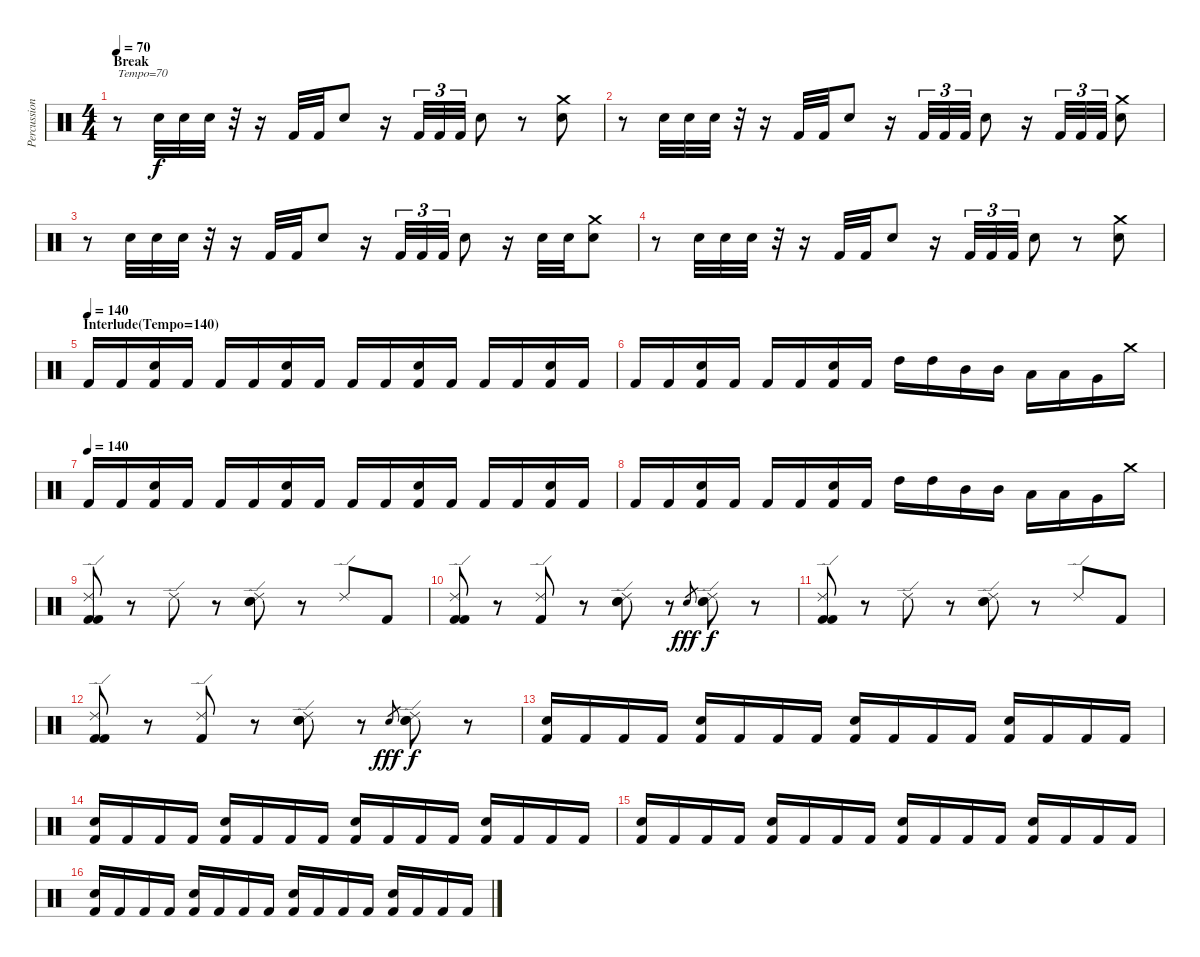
\track ("Percussion" "Percussion") {instrument percussion}
\staff {score}
\articulation defaults
\ts (4 4)
\section ("" "Break")
\tempo 70
\clef neutral
\ks c
r.8{txt "Tempo=70" dy f} "Snare (hit) 2".32 "Snare (hit) 2".32 "Snare (hit) 2".32 r.32 r.16 "Kick (hit) 2".32 "Kick (hit) 2".32 "Snare (hit) 2".8 r.16 "Kick (hit) 2".32{tu (3 2)} "Kick (hit) 2".32{tu (3 2)} "Kick (hit) 2".32{tu (3 2)} "Snare (hit) 2".8 r.8 ("Crash medium (hit)" "Snare (hit) 2").8 |
r.8 "Snare (hit) 2".32 "Snare (hit) 2".32 "Snare (hit) 2".32 r.32 r.16 "Kick (hit) 2".32 "Kick (hit) 2".32 "Snare (hit) 2".8 r.16 "Kick (hit) 2".32{tu (3 2)} "Kick (hit) 2".32{tu (3 2)} "Kick (hit) 2".32{tu (3 2)} "Snare (hit) 2".8 r.16 "Kick (hit) 2".32{tu (3 2)} "Kick (hit) 2".32{tu (3 2)} "Kick (hit) 2".32{tu (3 2)} ("Crash medium (hit)" "Snare (hit) 2").8 |
r.8 "Snare (hit) 2".32 "Snare (hit) 2".32 "Snare (hit) 2".32 r.32 r.16 "Kick (hit) 2".32 "Kick (hit) 2".32 "Snare (hit) 2".8 r.16 "Kick (hit) 2".32{tu (3 2)} "Kick (hit) 2".32{tu (3 2)} "Kick (hit) 2".32{tu (3 2)} "Snare (hit) 2".8 r.16 "Snare (hit) 2".32 "Snare (hit) 2".32 ("Crash medium (hit)" "Snare (hit) 2").8 |
r.8 "Snare (hit) 2".32 "Snare (hit) 2".32 "Snare (hit) 2".32 r.32 r.16 "Kick (hit) 2".32 "Kick (hit) 2".32 "Snare (hit) 2".8 r.16 "Kick (hit) 2".32{tu (3 2)} "Kick (hit) 2".32{tu (3 2)} "Kick (hit) 2".32{tu (3 2)} "Snare (hit) 2".8 r.8 ("Crash medium (hit)" "Snare (hit) 2").8 |
\section ("" "Interlude(Tempo=140)")
\tempo (140)
"Kick (hit) 2".16 "Kick (hit) 2".16 ("Snare (hit) 2" "Kick (hit) 2").16 "Kick (hit) 2".16 "Kick (hit) 2".16 "Kick (hit) 2".16 ("Snare (hit) 2" "Kick (hit) 2").16 "Kick (hit) 2".16 "Kick (hit) 2".16 "Kick (hit) 2".16 ("Snare (hit) 2" "Kick (hit) 2").16 "Kick (hit) 2".16 "Kick (hit) 2".16 "Kick (hit) 2".16 ("Snare (hit) 2" "Kick (hit) 2").16 "Kick (hit) 2".16 |
"Kick (hit) 2".16 "Kick (hit) 2".16 ("Snare (hit) 2" "Kick (hit) 2").16 "Kick (hit) 2".16 "Kick (hit) 2".16 "Kick (hit) 2".16 ("Snare (hit) 2" "Kick (hit) 2").16 "Kick (hit) 2".16 "High Tom (hit)".16 "High Tom (hit)".16 "Mid Tom (hit)".16 "Mid Tom (hit)".16 "Low Tom (hit)".16 "Low Tom (hit)".16 "Very Low Tom (hit)".16 "Crash medium (hit)".16 |
\tempo (140)
"Kick (hit) 2".16 "Kick (hit) 2".16 ("Snare (hit) 2" "Kick (hit) 2").16 "Kick (hit) 2".16 "Kick (hit) 2".16 "Kick (hit) 2".16 ("Snare (hit) 2" "Kick (hit) 2").16 "Kick (hit) 2".16 "Kick (hit) 2".16 "Kick (hit) 2".16 ("Snare (hit) 2" "Kick (hit) 2").16 "Kick (hit) 2".16 "Kick (hit) 2".16 "Kick (hit) 2".16 ("Snare (hit) 2" "Kick (hit) 2").16 "Kick (hit) 2".16 |
"Kick (hit) 2".16 "Kick (hit) 2".16 ("Snare (hit) 2" "Kick (hit) 2").16 "Kick (hit) 2".16 "Kick (hit) 2".16 "Kick (hit) 2".16 ("Snare (hit) 2" "Kick (hit) 2").16 "Kick (hit) 2".16 "High Tom (hit)".16 "High Tom (hit)".16 "Mid Tom (hit)".16 "Mid Tom (hit)".16 "Low Tom (hit)".16 "Low Tom (hit)".16 "Very Low Tom (hit)".16 "Crash medium (hit)".16 |
("Ride (edge) 2" "Kick (hit) 2" "Kick (hit) 2").8 r.8 "Ride (edge) 2".8 r.8 ("Ride (edge) 2" "Snare (hit) 2" "Snare (hit) 2").8 r.8 "Ride (edge) 2".8 "Kick (hit) 2".8 |
("Ride (edge) 2" "Kick (hit) 2" "Kick (hit) 2").8 r.8 ("Ride (edge) 2" "Kick (hit) 2").8 r.8 ("Ride (edge) 2" "Snare (hit) 2" "Snare (hit) 2").8 r.8 "Snare (hit) 2".8{gr dy fff} ("Ride (edge) 2" "Snare (hit) 2" "Snare (hit) 2").8{dy f} r.8 |
("Ride (edge) 2" "Kick (hit) 2" "Kick (hit) 2").8 r.8 "Ride (edge) 2".8 r.8 ("Ride (edge) 2" "Snare (hit) 2" "Snare (hit) 2").8 r.8 "Ride (edge) 2".8 "Kick (hit) 2".8 |
("Ride (edge) 2" "Kick (hit) 2" "Kick (hit) 2").8 r.8 ("Ride (edge) 2" "Kick (hit) 2").8 r.8 ("Ride (edge) 2" "Snare (hit) 2" "Snare (hit) 2").8 r.8 "Snare (hit) 2".8{gr dy fff} ("Ride (edge) 2" "Snare (hit) 2" "Snare (hit) 2").8{dy f} r.8 |
("Snare (hit) 2" "Kick (hit) 2").16 "Kick (hit) 2".16 "Kick (hit) 2".16 "Kick (hit) 2".16 ("Snare (hit) 2" "Kick (hit) 2").16 "Kick (hit) 2".16 "Kick (hit) 2".16 "Kick (hit) 2".16 ("Snare (hit) 2" "Kick (hit) 2").16 "Kick (hit) 2".16 "Kick (hit) 2".16 "Kick (hit) 2".16 ("Snare (hit) 2" "Kick (hit) 2").16 "Kick (hit) 2".16 "Kick (hit) 2".16 "Kick (hit) 2".16 |
("Snare (hit) 2" "Kick (hit) 2").16 "Kick (hit) 2".16 "Kick (hit) 2".16 "Kick (hit) 2".16 ("Snare (hit) 2" "Kick (hit) 2").16 "Kick (hit) 2".16 "Kick (hit) 2".16 "Kick (hit) 2".16 ("Snare (hit) 2" "Kick (hit) 2").16 "Kick (hit) 2".16 "Kick (hit) 2".16 "Kick (hit) 2".16 ("Snare (hit) 2" "Kick (hit) 2").16 "Kick (hit) 2".16 "Kick (hit) 2".16 "Kick (hit) 2".16 |
("Snare (hit) 2" "Kick (hit) 2").16 "Kick (hit) 2".16 "Kick (hit) 2".16 "Kick (hit) 2".16 ("Snare (hit) 2" "Kick (hit) 2").16 "Kick (hit) 2".16 "Kick (hit) 2".16 "Kick (hit) 2".16 ("Snare (hit) 2" "Kick (hit) 2").16 "Kick (hit) 2".16 "Kick (hit) 2".16 "Kick (hit) 2".16 ("Snare (hit) 2" "Kick (hit) 2").16 "Kick (hit) 2".16 "Kick (hit) 2".16 "Kick (hit) 2".16 |
("Snare (hit) 2" "Kick (hit) 2").16 "Kick (hit) 2".16 "Kick (hit) 2".16 "Kick (hit) 2".16 ("Snare (hit) 2" "Kick (hit) 2").16 "Kick (hit) 2".16 "Kick (hit) 2".16 "Kick (hit) 2".16 ("Snare (hit) 2" "Kick (hit) 2").16 "Kick (hit) 2".16 "Kick (hit) 2".16 "Kick (hit) 2".16 ("Snare (hit) 2" "Kick (hit) 2").16 "Kick (hit) 2".16 "Kick (hit) 2".16 "Kick (hit) 2".16
